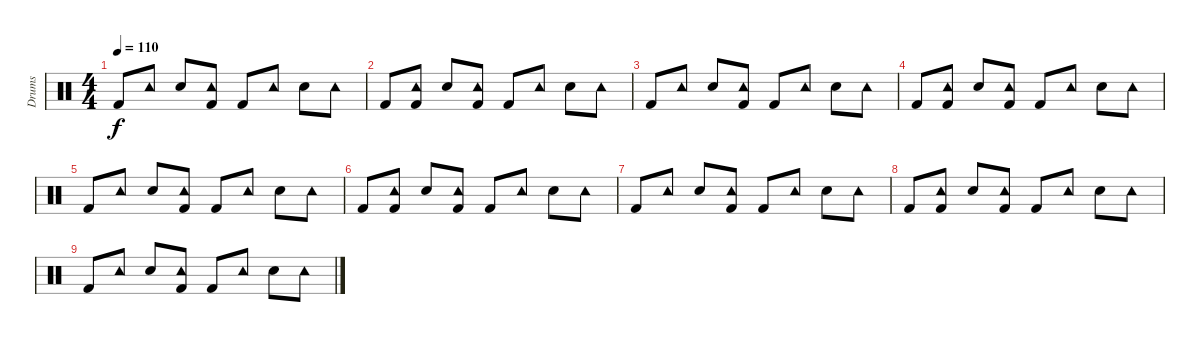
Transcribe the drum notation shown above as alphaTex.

\track ("Drums" "Drums") {instrument percussion}
\staff {score}
\articulation defaults
\ts (4 4)
\tempo 110
\clef neutral
\ks c "Kick (hit) 2".8{dy f} "Tambourine (hit)".8 "Snare (hit) 2".8
("Tambourine (hit)" "Kick (hit) 2").8 "Kick (hit) 2".8 "Tambourine (hit)".8 "Snare (hit) 2".8 "Tambourine (hit)".8 |
"Kick (hit) 2".8 ("Tambourine (hit)" "Kick (hit) 2").8 "Snare (hit) 2".8 ("Tambourine (hit)" "Kick (hit) 2").8 "Kick (hit) 2".8 "Tambourine (hit)".8 "Snare (hit) 2".8 "Tambourine (hit)".8 |
"Kick (hit) 2".8 "Tambourine (hit)".8 "Snare (hit) 2".8 ("Tambourine (hit)" "Kick (hit) 2").8 "Kick (hit) 2".8 "Tambourine (hit)".8 "Snare (hit) 2".8 "Tambourine (hit)".8 |
"Kick (hit) 2".8 ("Tambourine (hit)" "Kick (hit) 2").8 "Snare (hit) 2".8 ("Tambourine (hit)" "Kick (hit) 2").8 "Kick (hit) 2".8 "Tambourine (hit)".8 "Snare (hit) 2".8 "Tambourine (hit)".8 |
"Kick (hit) 2".8 "Tambourine (hit)".8 "Snare (hit) 2".8 ("Tambourine (hit)" "Kick (hit) 2").8 "Kick (hit) 2".8 "Tambourine (hit)".8 "Snare (hit) 2".8 "Tambourine (hit)".8 |
"Kick (hit) 2".8 ("Tambourine (hit)" "Kick (hit) 2").8 "Snare (hit) 2".8 ("Tambourine (hit)" "Kick (hit) 2").8 "Kick (hit) 2".8 "Tambourine (hit)".8 "Snare (hit) 2".8 "Tambourine (hit)".8 |
"Kick (hit) 2".8 "Tambourine (hit)".8 "Snare (hit) 2".8 ("Tambourine (hit)" "Kick (hit) 2").8 "Kick (hit) 2".8 "Tambourine (hit)".8 "Snare (hit) 2".8 "Tambourine (hit)".8 |
"Kick (hit) 2".8 ("Tambourine (hit)" "Kick (hit) 2").8 "Snare (hit) 2".8 ("Tambourine (hit)" "Kick (hit) 2").8 "Kick (hit) 2".8 "Tambourine (hit)".8 "Snare (hit) 2".8 "Tambourine (hit)".8 |
"Kick (hit) 2".8 "Tambourine (hit)".8 "Snare (hit) 2".8 ("Tambourine (hit)" "Kick (hit) 2").8 "Kick (hit) 2".8 "Tambourine (hit)".8 "Snare (hit) 2".8 "Tambourine (hit)".8
